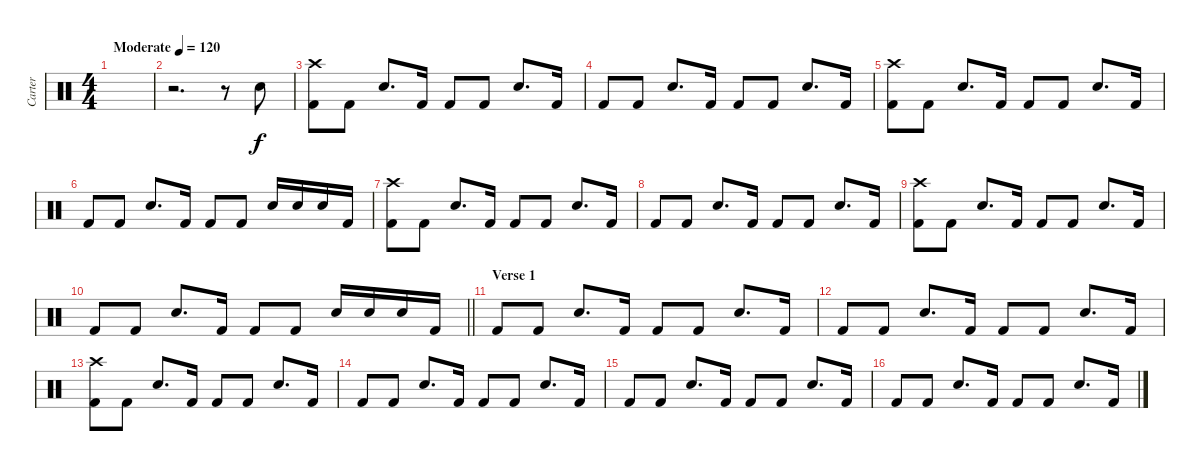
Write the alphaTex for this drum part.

\track ("Carter" "Carter") {instrument percussion}
\staff {score}
\articulation defaults
\ts (4 4)
\tempo (120 "Moderate")
\clef neutral
\ks c
|
r.2{d} r.8 "Electric Snare (hit)".8 |
("Kick (hit) 2" "Crash high (hit)").8 "Kick (hit) 2".8 "Electric Snare (hit)".8{d} "Kick (hit) 2".16 "Kick (hit) 2".8 "Kick (hit) 2".8 "Electric Snare (hit)".8{d} "Kick (hit) 2".16 |
"Kick (hit) 2".8 "Kick (hit) 2".8 "Electric Snare (hit)".8{d} "Kick (hit) 2".16 "Kick (hit) 2".8 "Kick (hit) 2".8 "Electric Snare (hit)".8{d} "Kick (hit) 2".16 |
("Kick (hit) 2" "Crash high (hit)").8 "Kick (hit) 2".8 "Electric Snare (hit)".8{d} "Kick (hit) 2".16 "Kick (hit) 2".8 "Kick (hit) 2".8 "Electric Snare (hit)".8{d} "Kick (hit) 2".16 |
"Kick (hit) 2".8 "Kick (hit) 2".8 "Electric Snare (hit)".8{d} "Kick (hit) 2".16 "Kick (hit) 2".8 "Kick (hit) 2".8 "Electric Snare (hit)".16 "Electric Snare (hit)".16 "Electric Snare (hit)".16 "Kick (hit) 2".16 |
("Kick (hit) 2" "Crash high (hit)").8 "Kick (hit) 2".8 "Electric Snare (hit)".8{d} "Kick (hit) 2".16 "Kick (hit) 2".8 "Kick (hit) 2".8 "Electric Snare (hit)".8{d} "Kick (hit) 2".16 |
"Kick (hit) 2".8 "Kick (hit) 2".8 "Electric Snare (hit)".8{d} "Kick (hit) 2".16 "Kick (hit) 2".8 "Kick (hit) 2".8 "Electric Snare (hit)".8{d} "Kick (hit) 2".16 |
("Kick (hit) 2" "Crash high (hit)").8 "Kick (hit) 2".8 "Electric Snare (hit)".8{d} "Kick (hit) 2".16 "Kick (hit) 2".8 "Kick (hit) 2".8 "Electric Snare (hit)".8{d} "Kick (hit) 2".16 |
\barLineRight lightlight "Kick (hit) 2".8 "Kick (hit) 2".8 "Electric Snare (hit)".8{d} "Kick (hit) 2".16 "Kick (hit) 2".8 "Kick (hit) 2".8 "Electric Snare (hit)".16 "Electric Snare (hit)".16 "Electric Snare (hit)".16 "Kick (hit) 2".16
|
\section ("" "Verse 1")
"Kick (hit) 2".8 "Kick (hit) 2".8 "Electric Snare (hit)".8{d} "Kick (hit) 2".16 "Kick (hit) 2".8 "Kick (hit) 2".8 "Electric Snare (hit)".8{d} "Kick (hit) 2".16 |
"Kick (hit) 2".8 "Kick (hit) 2".8 "Electric Snare (hit)".8{d} "Kick (hit) 2".16 "Kick (hit) 2".8 "Kick (hit) 2".8 "Electric Snare (hit)".8{d} "Kick (hit) 2".16 |
("Kick (hit) 2" "Crash high (hit)").8 "Kick (hit) 2".8 "Electric Snare (hit)".8{d} "Kick (hit) 2".16 "Kick (hit) 2".8 "Kick (hit) 2".8 "Electric Snare (hit)".8{d} "Kick (hit) 2".16 |
"Kick (hit) 2".8 "Kick (hit) 2".8 "Electric Snare (hit)".8{d} "Kick (hit) 2".16 "Kick (hit) 2".8 "Kick (hit) 2".8 "Electric Snare (hit)".8{d} "Kick (hit) 2".16 |
"Kick (hit) 2".8 "Kick (hit) 2".8 "Electric Snare (hit)".8{d} "Kick (hit) 2".16 "Kick (hit) 2".8 "Kick (hit) 2".8 "Electric Snare (hit)".8{d} "Kick (hit) 2".16 |
"Kick (hit) 2".8 "Kick (hit) 2".8 "Electric Snare (hit)".8{d} "Kick (hit) 2".16 "Kick (hit) 2".8 "Kick (hit) 2".8 "Electric Snare (hit)".8{d} "Kick (hit) 2".16
